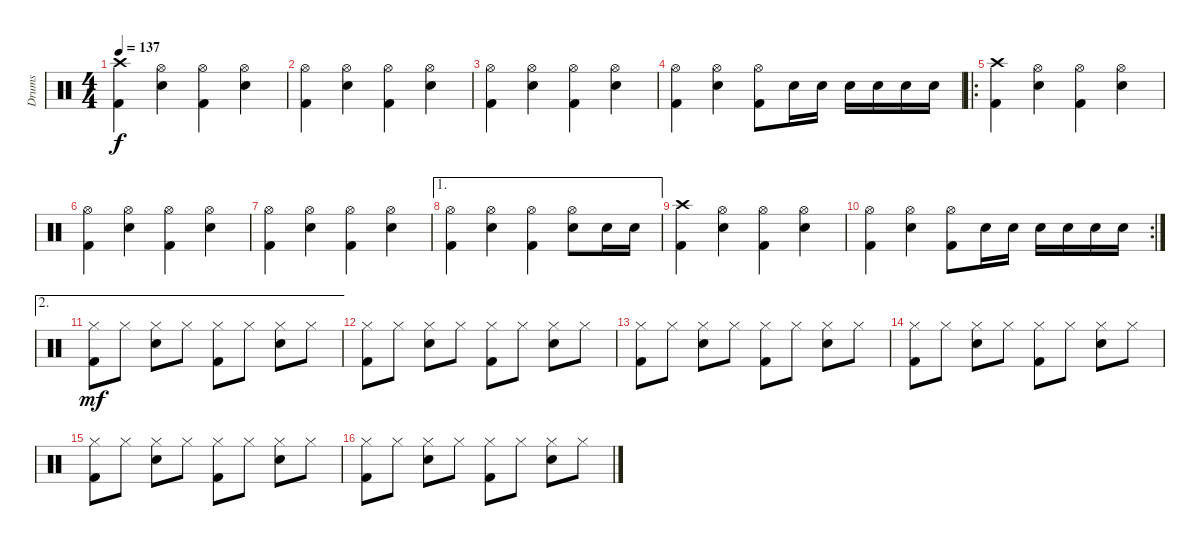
\track ("Drums" "Drums") {instrument percussion}
\staff {score}
\articulation defaults
\ts (4 4)
\tempo 137
\clef neutral
\ks c
("Crash high (hit)" "Kick (hit) 2").4{dy f volume 16} ("Hi-Hat (open)" "Snare (hit) 2").4 ("Hi-Hat (open)" "Kick (hit) 2").4 ("Hi-Hat (open)" "Snare (hit) 2").4 |
("Hi-Hat (open)" "Kick (hit) 2").4{volume 16} ("Hi-Hat (open)" "Snare (hit) 2").4 ("Hi-Hat (open)" "Kick (hit) 2").4 ("Hi-Hat (open)" "Snare (hit) 2").4 |
("Hi-Hat (open)" "Kick (hit) 2").4{volume 16} ("Hi-Hat (open)" "Snare (hit) 2").4 ("Hi-Hat (open)" "Kick (hit) 2").4 ("Hi-Hat (open)" "Snare (hit) 2").4 |
("Hi-Hat (open)" "Kick (hit) 2").4{volume 16} ("Hi-Hat (open)" "Snare (hit) 2").4 ("Hi-Hat (open)" "Kick (hit) 2").8 "Snare (hit) 2".16 "Snare (hit) 2".16 "Snare (hit) 2".16 "Snare (hit) 2".16 "Snare (hit) 2".16 "Snare (hit) 2".16 |
\ro
("Crash high (hit)" "Kick (hit) 2").4{volume 16} ("Hi-Hat (open)" "Snare (hit) 2").4 ("Hi-Hat (open)" "Kick (hit) 2").4 ("Hi-Hat (open)" "Snare (hit) 2").4 |
("Hi-Hat (open)" "Kick (hit) 2").4{volume 16} ("Hi-Hat (open)" "Snare (hit) 2").4 ("Hi-Hat (open)" "Kick (hit) 2").4 ("Hi-Hat (open)" "Snare (hit) 2").4 |
("Hi-Hat (open)" "Kick (hit) 2").4{volume 16} ("Hi-Hat (open)" "Snare (hit) 2").4 ("Hi-Hat (open)" "Kick (hit) 2").4 ("Hi-Hat (open)" "Snare (hit) 2").4 |
\ae 1
("Hi-Hat (open)" "Kick (hit) 2").4{volume 16} ("Hi-Hat (open)" "Snare (hit) 2").4 ("Hi-Hat (open)" "Kick (hit) 2").4 ("Hi-Hat (open)" "Snare (hit) 2").8 "Snare (hit) 2".16 "Snare (hit) 2".16 |
("Crash high (hit)" "Kick (hit) 2").4{volume 16} ("Hi-Hat (open)" "Snare (hit) 2").4 ("Hi-Hat (open)" "Kick (hit) 2").4 ("Hi-Hat (open)" "Snare (hit) 2").4 |
\rc 2
("Hi-Hat (open)" "Kick (hit) 2").4{volume 16} ("Hi-Hat (open)" "Snare (hit) 2").4 ("Hi-Hat (open)" "Kick (hit) 2").8 "Snare (hit) 2".16 "Snare (hit) 2".16 "Snare (hit) 2".16 "Snare (hit) 2".16 "Snare (hit) 2".16 "Snare (hit) 2".16 |
\ae 2
("Hi-Hat (closed)" "Kick (hit) 2").8{dy mf} "Hi-Hat (closed)".8 ("Hi-Hat (closed)" "Snare (hit) 2").8 "Hi-Hat (closed)".8 ("Hi-Hat (closed)" "Kick (hit) 2").8 "Hi-Hat (closed)".8 ("Hi-Hat (closed)" "Snare (hit) 2").8 "Hi-Hat (closed)".8 |
("Hi-Hat (closed)" "Kick (hit) 2").8 "Hi-Hat (closed)".8 ("Hi-Hat (closed)" "Snare (hit) 2").8 "Hi-Hat (closed)".8 ("Hi-Hat (closed)" "Kick (hit) 2").8 "Hi-Hat (closed)".8 ("Hi-Hat (closed)" "Snare (hit) 2").8 "Hi-Hat (closed)".8 |
("Hi-Hat (closed)" "Kick (hit) 2").8 "Hi-Hat (closed)".8 ("Hi-Hat (closed)" "Snare (hit) 2").8 "Hi-Hat (closed)".8 ("Hi-Hat (closed)" "Kick (hit) 2").8 "Hi-Hat (closed)".8 ("Hi-Hat (closed)" "Snare (hit) 2").8 "Hi-Hat (closed)".8 |
("Hi-Hat (closed)" "Kick (hit) 2").8 "Hi-Hat (closed)".8 ("Hi-Hat (closed)" "Snare (hit) 2").8 "Hi-Hat (closed)".8 ("Hi-Hat (closed)" "Kick (hit) 2").8 "Hi-Hat (closed)".8 ("Hi-Hat (closed)" "Snare (hit) 2").8 "Hi-Hat (closed)".8 |
("Hi-Hat (closed)" "Kick (hit) 2").8 "Hi-Hat (closed)".8 ("Hi-Hat (closed)" "Snare (hit) 2").8 "Hi-Hat (closed)".8 ("Hi-Hat (closed)" "Kick (hit) 2").8 "Hi-Hat (closed)".8 ("Hi-Hat (closed)" "Snare (hit) 2").8 "Hi-Hat (closed)".8 |
("Hi-Hat (closed)" "Kick (hit) 2").8 "Hi-Hat (closed)".8 ("Hi-Hat (closed)" "Snare (hit) 2").8 "Hi-Hat (closed)".8 ("Hi-Hat (closed)" "Kick (hit) 2").8 "Hi-Hat (closed)".8 ("Hi-Hat (closed)" "Snare (hit) 2").8 "Hi-Hat (closed)".8
